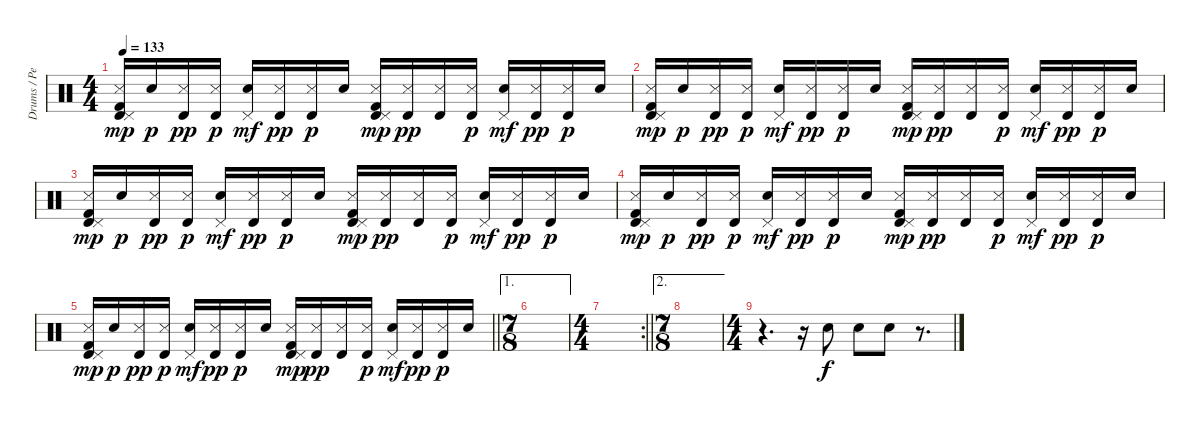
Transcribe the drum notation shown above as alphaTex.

\track ("Drums / Percussions" "Drums / Pe") {instrument percussion}
\staff {score}
\articulation defaults
\ts (4 4)
\tempo 133
\clef neutral
\ks c
("Snare (side stick) 3" "Timbale high (hit)" "Pedal Hi-Hat (hit)" "Kick (hit) 2").16{dy mp} "Electric Snare (hit)".16{dy p} ("Snare (side stick) 3" "Timbale high (hit)").16{dy pp} ("Snare (side stick) 3" "Timbale high (hit)").16{dy p} ("Pedal Hi-Hat (hit)" "Electric Snare (hit)").16{dy mf} ("Snare (side stick) 3" "Timbale high (hit)").16{dy pp} ("Snare (side stick) 3" "Timbale high (hit)").16{dy p} "Electric Snare (hit)".16 ("Snare (side stick) 3" "Timbale high (hit)" "Pedal Hi-Hat (hit)" "Kick (hit) 2").16{dy mp} ("Snare (side stick) 3" "Timbale high (hit)").16{dy pp} ("Snare (side stick) 3" "Timbale high (hit)").16 ("Snare (side stick) 3" "Timbale high (hit)").16{dy p} ("Pedal Hi-Hat (hit)" "Electric Snare (hit)").16{dy mf} ("Snare (side stick) 3" "Timbale high (hit)").16{dy pp} ("Snare (side stick) 3" "Timbale high (hit)").16{dy p} "Electric Snare (hit)".16 |
("Snare (side stick) 3" "Timbale high (hit)" "Pedal Hi-Hat (hit)" "Kick (hit) 2").16{dy mp} "Electric Snare (hit)".16{dy p} ("Snare (side stick) 3" "Timbale high (hit)").16{dy pp} ("Snare (side stick) 3" "Timbale high (hit)").16{dy p} ("Pedal Hi-Hat (hit)" "Electric Snare (hit)").16{dy mf} ("Snare (side stick) 3" "Timbale high (hit)").16{dy pp} ("Snare (side stick) 3" "Timbale high (hit)").16{dy p} "Electric Snare (hit)".16 ("Snare (side stick) 3" "Timbale high (hit)" "Pedal Hi-Hat (hit)" "Kick (hit) 2").16{dy mp} ("Snare (side stick) 3" "Timbale high (hit)").16{dy pp} ("Snare (side stick) 3" "Timbale high (hit)").16 ("Snare (side stick) 3" "Timbale high (hit)").16{dy p} ("Pedal Hi-Hat (hit)" "Electric Snare (hit)").16{dy mf} ("Snare (side stick) 3" "Timbale high (hit)").16{dy pp} ("Snare (side stick) 3" "Timbale high (hit)").16{dy p} "Electric Snare (hit)".16 |
("Snare (side stick) 3" "Timbale high (hit)" "Pedal Hi-Hat (hit)" "Kick (hit) 2").16{dy mp} "Electric Snare (hit)".16{dy p} ("Snare (side stick) 3" "Timbale high (hit)").16{dy pp} ("Snare (side stick) 3" "Timbale high (hit)").16{dy p} ("Pedal Hi-Hat (hit)" "Electric Snare (hit)").16{dy mf} ("Snare (side stick) 3" "Timbale high (hit)").16{dy pp} ("Snare (side stick) 3" "Timbale high (hit)").16{dy p} "Electric Snare (hit)".16 ("Snare (side stick) 3" "Timbale high (hit)" "Pedal Hi-Hat (hit)" "Kick (hit) 2").16{dy mp} ("Snare (side stick) 3" "Timbale high (hit)").16{dy pp} ("Snare (side stick) 3" "Timbale high (hit)").16 ("Snare (side stick) 3" "Timbale high (hit)").16{dy p} ("Pedal Hi-Hat (hit)" "Electric Snare (hit)").16{dy mf} ("Snare (side stick) 3" "Timbale high (hit)").16{dy pp} ("Snare (side stick) 3" "Timbale high (hit)").16{dy p} "Electric Snare (hit)".16 |
("Snare (side stick) 3" "Timbale high (hit)" "Pedal Hi-Hat (hit)" "Kick (hit) 2").16{dy mp} "Electric Snare (hit)".16{dy p} ("Snare (side stick) 3" "Timbale high (hit)").16{dy pp} ("Snare (side stick) 3" "Timbale high (hit)").16{dy p} ("Pedal Hi-Hat (hit)" "Electric Snare (hit)").16{dy mf} ("Snare (side stick) 3" "Timbale high (hit)").16{dy pp} ("Snare (side stick) 3" "Timbale high (hit)").16{dy p} "Electric Snare (hit)".16 ("Snare (side stick) 3" "Timbale high (hit)" "Pedal Hi-Hat (hit)" "Kick (hit) 2").16{dy mp} ("Snare (side stick) 3" "Timbale high (hit)").16{dy pp} ("Snare (side stick) 3" "Timbale high (hit)").16 ("Snare (side stick) 3" "Timbale high (hit)").16{dy p} ("Pedal Hi-Hat (hit)" "Electric Snare (hit)").16{dy mf} ("Snare (side stick) 3" "Timbale high (hit)").16{dy pp} ("Snare (side stick) 3" "Timbale high (hit)").16{dy p} "Electric Snare (hit)".16 |
\barLineRight lightlight
("Snare (side stick) 3" "Timbale high (hit)" "Pedal Hi-Hat (hit)" "Kick (hit) 2").16{dy mp} "Electric Snare (hit)".16{dy p} ("Snare (side stick) 3" "Timbale high (hit)").16{dy pp} ("Snare (side stick) 3" "Timbale high (hit)").16{dy p} ("Pedal Hi-Hat (hit)" "Electric Snare (hit)").16{dy mf} ("Snare (side stick) 3" "Timbale high (hit)").16{dy pp} ("Snare (side stick) 3" "Timbale high (hit)").16{dy p} "Electric Snare (hit)".16 ("Snare (side stick) 3" "Timbale high (hit)" "Pedal Hi-Hat (hit)" "Kick (hit) 2").16{dy mp} ("Snare (side stick) 3" "Timbale high (hit)").16{dy pp} ("Snare (side stick) 3" "Timbale high (hit)").16 ("Snare (side stick) 3" "Timbale high (hit)").16{dy p} ("Pedal Hi-Hat (hit)" "Electric Snare (hit)").16{dy mf} ("Snare (side stick) 3" "Timbale high (hit)").16{dy pp} ("Snare (side stick) 3" "Timbale high (hit)").16{dy p} "Electric Snare (hit)".16 |
\ae 1
\ts (7 8)
\section ("" "")
|
\rc 2
\ts (4 4)
\barLineRight lightlight
|
\ae 2
\ts (7 8)
\section ("" "")
|
\ts (4 4)
r.4{d} r.16 "Electric Snare (hit)".8{dy f} "Electric Snare (hit)".8 "Electric Snare (hit)".8 r.8{d}
